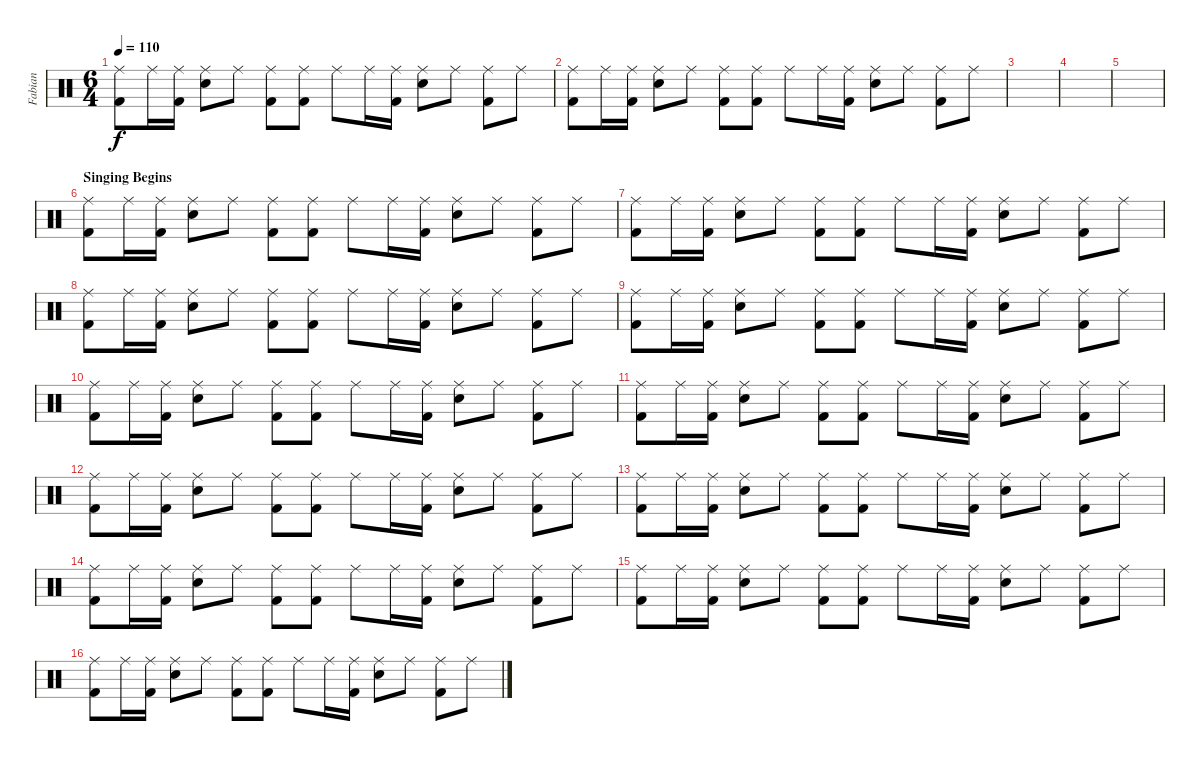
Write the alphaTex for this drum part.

\track ("Fabian" "Fabian") {instrument percussion}
\staff {score}
\articulation defaults
\ts (6 4)
\tempo 110
\clef neutral
\ks c
("Ride (middle)" "Kick (hit) 2").8{dy f} "Ride (middle)".16 ("Ride (middle)" "Kick (hit) 2").16 ("Ride (middle)" "Snare (hit) 2").8 "Ride (middle)".8 ("Ride (middle)" "Kick (hit) 2").8 ("Ride (middle)" "Kick (hit) 2").8 "Ride (middle)".8 "Ride (middle)".16 ("Ride (middle)" "Kick (hit) 2").16 ("Ride (middle)" "Snare (hit) 2").8 "Ride (middle)".8 ("Ride (middle)" "Kick (hit) 2").8 "Ride (middle)".8 |
("Ride (middle)" "Kick (hit) 2").8 "Ride (middle)".16 ("Ride (middle)" "Kick (hit) 2").16 ("Ride (middle)" "Snare (hit) 2").8 "Ride (middle)".8 ("Ride (middle)" "Kick (hit) 2").8 ("Ride (middle)" "Kick (hit) 2").8 "Ride (middle)".8 "Ride (middle)".16 ("Ride (middle)" "Kick (hit) 2").16 ("Ride (middle)" "Snare (hit) 2").8 "Ride (middle)".8 ("Ride (middle)" "Kick (hit) 2").8 "Ride (middle)".8 |
|
|
|
\section ("" "Singing Begins")
("Ride (middle)" "Kick (hit) 2").8 "Ride (middle)".16 ("Ride (middle)" "Kick (hit) 2").16 ("Ride (middle)" "Snare (hit) 2").8 "Ride (middle)".8 ("Ride (middle)" "Kick (hit) 2").8 ("Ride (middle)" "Kick (hit) 2").8 "Ride (middle)".8 "Ride (middle)".16 ("Ride (middle)" "Kick (hit) 2").16 ("Ride (middle)" "Snare (hit) 2").8 "Ride (middle)".8 ("Ride (middle)" "Kick (hit) 2").8 "Ride (middle)".8 |
("Ride (middle)" "Kick (hit) 2").8 "Ride (middle)".16 ("Ride (middle)" "Kick (hit) 2").16 ("Ride (middle)" "Snare (hit) 2").8 "Ride (middle)".8 ("Ride (middle)" "Kick (hit) 2").8 ("Ride (middle)" "Kick (hit) 2").8 "Ride (middle)".8 "Ride (middle)".16 ("Ride (middle)" "Kick (hit) 2").16 ("Ride (middle)" "Snare (hit) 2").8 "Ride (middle)".8 ("Ride (middle)" "Kick (hit) 2").8 "Ride (middle)".8 |
("Ride (middle)" "Kick (hit) 2").8 "Ride (middle)".16 ("Ride (middle)" "Kick (hit) 2").16 ("Ride (middle)" "Snare (hit) 2").8 "Ride (middle)".8 ("Ride (middle)" "Kick (hit) 2").8 ("Ride (middle)" "Kick (hit) 2").8 "Ride (middle)".8 "Ride (middle)".16 ("Ride (middle)" "Kick (hit) 2").16 ("Ride (middle)" "Snare (hit) 2").8 "Ride (middle)".8 ("Ride (middle)" "Kick (hit) 2").8 "Ride (middle)".8 |
("Ride (middle)" "Kick (hit) 2").8 "Ride (middle)".16 ("Ride (middle)" "Kick (hit) 2").16 ("Ride (middle)" "Snare (hit) 2").8 "Ride (middle)".8 ("Ride (middle)" "Kick (hit) 2").8 ("Ride (middle)" "Kick (hit) 2").8 "Ride (middle)".8 "Ride (middle)".16 ("Ride (middle)" "Kick (hit) 2").16 ("Ride (middle)" "Snare (hit) 2").8 "Ride (middle)".8 ("Ride (middle)" "Kick (hit) 2").8 "Ride (middle)".8 |
("Ride (middle)" "Kick (hit) 2").8 "Ride (middle)".16 ("Ride (middle)" "Kick (hit) 2").16 ("Ride (middle)" "Snare (hit) 2").8 "Ride (middle)".8 ("Ride (middle)" "Kick (hit) 2").8 ("Ride (middle)" "Kick (hit) 2").8 "Ride (middle)".8 "Ride (middle)".16 ("Ride (middle)" "Kick (hit) 2").16 ("Ride (middle)" "Snare (hit) 2").8 "Ride (middle)".8 ("Ride (middle)" "Kick (hit) 2").8 "Ride (middle)".8 |
("Ride (middle)" "Kick (hit) 2").8 "Ride (middle)".16 ("Ride (middle)" "Kick (hit) 2").16 ("Ride (middle)" "Snare (hit) 2").8 "Ride (middle)".8 ("Ride (middle)" "Kick (hit) 2").8 ("Ride (middle)" "Kick (hit) 2").8 "Ride (middle)".8 "Ride (middle)".16 ("Ride (middle)" "Kick (hit) 2").16 ("Ride (middle)" "Snare (hit) 2").8 "Ride (middle)".8 ("Ride (middle)" "Kick (hit) 2").8 "Ride (middle)".8 |
("Ride (middle)" "Kick (hit) 2").8 "Ride (middle)".16 ("Ride (middle)" "Kick (hit) 2").16 ("Ride (middle)" "Snare (hit) 2").8 "Ride (middle)".8 ("Ride (middle)" "Kick (hit) 2").8 ("Ride (middle)" "Kick (hit) 2").8 "Ride (middle)".8 "Ride (middle)".16 ("Ride (middle)" "Kick (hit) 2").16 ("Ride (middle)" "Snare (hit) 2").8 "Ride (middle)".8 ("Ride (middle)" "Kick (hit) 2").8 "Ride (middle)".8 |
("Ride (middle)" "Kick (hit) 2").8 "Ride (middle)".16 ("Ride (middle)" "Kick (hit) 2").16 ("Ride (middle)" "Snare (hit) 2").8 "Ride (middle)".8 ("Ride (middle)" "Kick (hit) 2").8 ("Ride (middle)" "Kick (hit) 2").8 "Ride (middle)".8 "Ride (middle)".16 ("Ride (middle)" "Kick (hit) 2").16 ("Ride (middle)" "Snare (hit) 2").8 "Ride (middle)".8 ("Ride (middle)" "Kick (hit) 2").8 "Ride (middle)".8 |
("Ride (middle)" "Kick (hit) 2").8 "Ride (middle)".16 ("Ride (middle)" "Kick (hit) 2").16 ("Ride (middle)" "Snare (hit) 2").8 "Ride (middle)".8 ("Ride (middle)" "Kick (hit) 2").8 ("Ride (middle)" "Kick (hit) 2").8 "Ride (middle)".8 "Ride (middle)".16 ("Ride (middle)" "Kick (hit) 2").16 ("Ride (middle)" "Snare (hit) 2").8 "Ride (middle)".8 ("Ride (middle)" "Kick (hit) 2").8 "Ride (middle)".8 |
("Ride (middle)" "Kick (hit) 2").8 "Ride (middle)".16 ("Ride (middle)" "Kick (hit) 2").16 ("Ride (middle)" "Snare (hit) 2").8 "Ride (middle)".8 ("Ride (middle)" "Kick (hit) 2").8 ("Ride (middle)" "Kick (hit) 2").8 "Ride (middle)".8 "Ride (middle)".16 ("Ride (middle)" "Kick (hit) 2").16 ("Ride (middle)" "Snare (hit) 2").8 "Ride (middle)".8 ("Ride (middle)" "Kick (hit) 2").8 "Ride (middle)".8 |
("Ride (middle)" "Kick (hit) 2").8 "Ride (middle)".16 ("Ride (middle)" "Kick (hit) 2").16 ("Ride (middle)" "Snare (hit) 2").8 "Ride (middle)".8 ("Ride (middle)" "Kick (hit) 2").8 ("Ride (middle)" "Kick (hit) 2").8 "Ride (middle)".8 "Ride (middle)".16 ("Ride (middle)" "Kick (hit) 2").16 ("Ride (middle)" "Snare (hit) 2").8 "Ride (middle)".8 ("Ride (middle)" "Kick (hit) 2").8 "Ride (middle)".8
